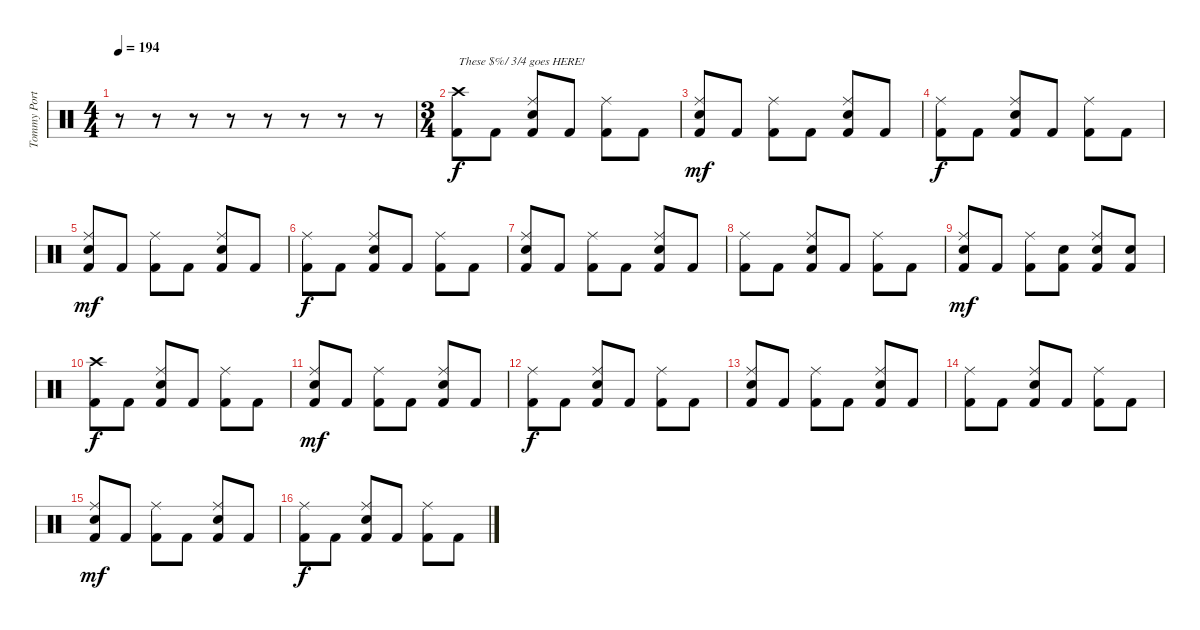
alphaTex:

\track ("Tommy Portino" "Tommy Port") {instrument percussion}
\staff {score}
\articulation defaults
\ts (4 4)
\tempo 194
\clef neutral
\ks c
r.8{dy f} r.8 r.8 r.8 r.8 r.8 r.8 r.8 |
\ts (3 4)
("Crash high (hit)" "Kick (hit) 2").8{txt "These $%/ 3/4 goes HERE!"} "Kick (hit) 2".8 ("Ride (middle)" "Snare (hit) 2" "Kick (hit) 2").8 "Kick (hit) 2".8 ("Ride (middle)" "Kick (hit) 2").8 "Kick (hit) 2".8 |
("Ride (middle)" "Snare (hit) 2" "Kick (hit) 2").8{dy mf} "Kick (hit) 2".8 ("Ride (middle)" "Kick (hit) 2").8 "Kick (hit) 2".8 ("Ride (middle)" "Snare (hit) 2" "Kick (hit) 2").8 "Kick (hit) 2".8 |
("Ride (middle)" "Kick (hit) 2").8{dy f} "Kick (hit) 2".8 ("Ride (middle)" "Snare (hit) 2" "Kick (hit) 2").8 "Kick (hit) 2".8 ("Ride (middle)" "Kick (hit) 2").8 "Kick (hit) 2".8 |
("Ride (middle)" "Snare (hit) 2" "Kick (hit) 2").8{dy mf} "Kick (hit) 2".8 ("Ride (middle)" "Kick (hit) 2").8 "Kick (hit) 2".8 ("Ride (middle)" "Snare (hit) 2" "Kick (hit) 2").8 "Kick (hit) 2".8 |
("Ride (middle)" "Kick (hit) 2").8{dy f} "Kick (hit) 2".8 ("Ride (middle)" "Snare (hit) 2" "Kick (hit) 2").8 "Kick (hit) 2".8 ("Ride (middle)" "Kick (hit) 2").8 "Kick (hit) 2".8 |
("Ride (middle)" "Snare (hit) 2" "Kick (hit) 2").8 "Kick (hit) 2".8 ("Ride (middle)" "Kick (hit) 2").8 "Kick (hit) 2".8 ("Ride (middle)" "Snare (hit) 2" "Kick (hit) 2").8 "Kick (hit) 2".8 |
("Ride (middle)" "Kick (hit) 2").8 "Kick (hit) 2".8 ("Ride (middle)" "Snare (hit) 2" "Kick (hit) 2").8 "Kick (hit) 2".8 ("Ride (middle)" "Kick (hit) 2").8 "Kick (hit) 2".8 |
("Ride (middle)" "Snare (hit) 2" "Kick (hit) 2").8{dy mf} "Kick (hit) 2".8 ("Ride (middle)" "Kick (hit) 2").8 ("Snare (hit) 2" "Kick (hit) 2").8 ("Ride (middle)" "Snare (hit) 2" "Kick (hit) 2").8 ("Snare (hit) 2" "Kick (hit) 2").8 |
("Crash high (hit)" "Kick (hit) 2").8{dy f} "Kick (hit) 2".8 ("Ride (middle)" "Snare (hit) 2" "Kick (hit) 2").8 "Kick (hit) 2".8 ("Ride (middle)" "Kick (hit) 2").8 "Kick (hit) 2".8 |
("Ride (middle)" "Snare (hit) 2" "Kick (hit) 2").8{dy mf} "Kick (hit) 2".8 ("Ride (middle)" "Kick (hit) 2").8 "Kick (hit) 2".8 ("Ride (middle)" "Snare (hit) 2" "Kick (hit) 2").8 "Kick (hit) 2".8 |
("Ride (middle)" "Kick (hit) 2").8{dy f} "Kick (hit) 2".8 ("Ride (middle)" "Snare (hit) 2" "Kick (hit) 2").8 "Kick (hit) 2".8 ("Ride (middle)" "Kick (hit) 2").8 "Kick (hit) 2".8 |
("Ride (middle)" "Snare (hit) 2" "Kick (hit) 2").8 "Kick (hit) 2".8 ("Ride (middle)" "Kick (hit) 2").8 "Kick (hit) 2".8 ("Ride (middle)" "Snare (hit) 2" "Kick (hit) 2").8 "Kick (hit) 2".8 |
("Ride (middle)" "Kick (hit) 2").8 "Kick (hit) 2".8 ("Ride (middle)" "Snare (hit) 2" "Kick (hit) 2").8 "Kick (hit) 2".8 ("Ride (middle)" "Kick (hit) 2").8 "Kick (hit) 2".8 |
("Ride (middle)" "Snare (hit) 2" "Kick (hit) 2").8{dy mf} "Kick (hit) 2".8 ("Ride (middle)" "Kick (hit) 2").8 "Kick (hit) 2".8 ("Ride (middle)" "Snare (hit) 2" "Kick (hit) 2").8 "Kick (hit) 2".8 |
("Ride (middle)" "Kick (hit) 2").8{dy f} "Kick (hit) 2".8 ("Ride (middle)" "Snare (hit) 2" "Kick (hit) 2").8 "Kick (hit) 2".8 ("Ride (middle)" "Kick (hit) 2").8 "Kick (hit) 2".8
